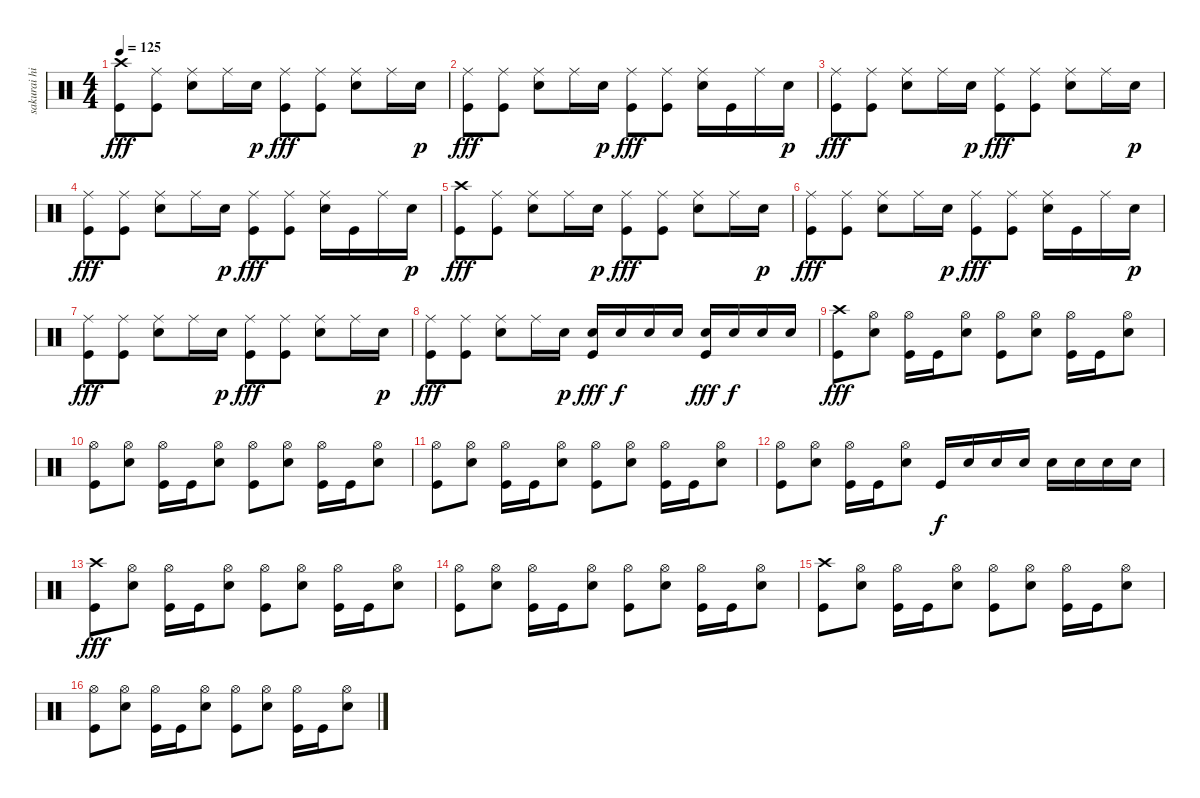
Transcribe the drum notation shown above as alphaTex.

\track ("sakurai hiroshi" "sakurai hi") {instrument percussion}
\staff {score}
\articulation defaults
\ts (4 4)
\tempo 125
\clef neutral
\ks c
("Kick (hit)" "Crash high (hit)").8{dy fff} ("Kick (hit)" "Ride (middle)").8 ("Ride (middle)" "Snare (hit) 2").8 "Ride (middle)".16 "Snare (hit) 2".16{dy p} ("Kick (hit)" "Ride (middle)").8{dy fff} ("Ride (middle)" "Kick (hit)").8 ("Ride (middle)" "Snare (hit) 2").8 "Ride (middle)".16 "Snare (hit) 2".16{dy p} |
("Kick (hit)" "Ride (middle)").8{dy fff} ("Kick (hit)" "Ride (middle)").8 ("Ride (middle)" "Snare (hit) 2").8 "Ride (middle)".16 "Snare (hit) 2".16{dy p} ("Kick (hit)" "Ride (middle)").8{dy fff} ("Ride (middle)" "Kick (hit)").8 ("Ride (middle)" "Snare (hit) 2").16 "Kick (hit)".16 "Ride (middle)".16 "Snare (hit) 2".16{dy p} |
("Kick (hit)" "Ride (middle)").8{dy fff} ("Kick (hit)" "Ride (middle)").8 ("Ride (middle)" "Snare (hit) 2").8 "Ride (middle)".16 "Snare (hit) 2".16{dy p} ("Kick (hit)" "Ride (middle)").8{dy fff} ("Ride (middle)" "Kick (hit)").8 ("Ride (middle)" "Snare (hit) 2").8 "Ride (middle)".16 "Snare (hit) 2".16{dy p} |
("Kick (hit)" "Ride (middle)").8{dy fff} ("Kick (hit)" "Ride (middle)").8 ("Ride (middle)" "Snare (hit) 2").8 "Ride (middle)".16 "Snare (hit) 2".16{dy p} ("Kick (hit)" "Ride (middle)").8{dy fff} ("Ride (middle)" "Kick (hit)").8 ("Ride (middle)" "Snare (hit) 2").16 "Kick (hit)".16 "Ride (middle)".16 "Snare (hit) 2".16{dy p} |
("Kick (hit)" "Crash high (hit)").8{dy fff} ("Kick (hit)" "Ride (middle)").8 ("Ride (middle)" "Snare (hit) 2").8 "Ride (middle)".16 "Snare (hit) 2".16{dy p} ("Kick (hit)" "Ride (middle)").8{dy fff} ("Ride (middle)" "Kick (hit)").8 ("Ride (middle)" "Snare (hit) 2").8 "Ride (middle)".16 "Snare (hit) 2".16{dy p} |
("Kick (hit)" "Ride (middle)").8{dy fff} ("Kick (hit)" "Ride (middle)").8 ("Ride (middle)" "Snare (hit) 2").8 "Ride (middle)".16 "Snare (hit) 2".16{dy p} ("Kick (hit)" "Ride (middle)").8{dy fff} ("Ride (middle)" "Kick (hit)").8 ("Ride (middle)" "Snare (hit) 2").16 "Kick (hit)".16 "Ride (middle)".16 "Snare (hit) 2".16{dy p} |
("Kick (hit)" "Ride (middle)").8{dy fff} ("Kick (hit)" "Ride (middle)").8 ("Ride (middle)" "Snare (hit) 2").8 "Ride (middle)".16 "Snare (hit) 2".16{dy p} ("Kick (hit)" "Ride (middle)").8{dy fff} ("Ride (middle)" "Kick (hit)").8 ("Ride (middle)" "Snare (hit) 2").8 "Ride (middle)".16 "Snare (hit) 2".16{dy p} |
("Kick (hit)" "Ride (middle)").8{dy fff} ("Kick (hit)" "Ride (middle)").8 ("Ride (middle)" "Snare (hit) 2").8 "Ride (middle)".16 "Snare (hit) 2".16{dy p} ("Snare (hit) 2" "Kick (hit)").16{dy fff} "Snare (hit) 2".16{dy f} "Snare (hit) 2".16 "Snare (hit) 2".16 ("Snare (hit) 2" "Kick (hit)").16{dy fff} "Snare (hit) 2".16{dy f} "Snare (hit) 2".16 "Snare (hit) 2".16 |
("Kick (hit)" "Crash high (hit)").8{dy fff} ("Hi-Hat (open)" "Snare (hit) 2").8 ("Hi-Hat (open)" "Kick (hit)").16 "Kick (hit)".16 ("Hi-Hat (open)" "Snare (hit) 2").8 ("Hi-Hat (open)" "Kick (hit)").8 ("Hi-Hat (open)" "Snare (hit) 2").8 ("Hi-Hat (open)" "Kick (hit)").16 "Kick (hit)".16 ("Hi-Hat (open)" "Snare (hit) 2").8 |
("Kick (hit)" "Hi-Hat (open)").8 ("Hi-Hat (open)" "Snare (hit) 2").8 ("Hi-Hat (open)" "Kick (hit)").16 "Kick (hit)".16 ("Hi-Hat (open)" "Snare (hit) 2").8 ("Hi-Hat (open)" "Kick (hit)").8 ("Hi-Hat (open)" "Snare (hit) 2").8 ("Hi-Hat (open)" "Kick (hit)").16 "Kick (hit)".16 ("Hi-Hat (open)" "Snare (hit) 2").8 |
("Kick (hit)" "Hi-Hat (open)").8 ("Hi-Hat (open)" "Snare (hit) 2").8 ("Hi-Hat (open)" "Kick (hit)").16 "Kick (hit)".16 ("Hi-Hat (open)" "Snare (hit) 2").8 ("Hi-Hat (open)" "Kick (hit)").8 ("Hi-Hat (open)" "Snare (hit) 2").8 ("Hi-Hat (open)" "Kick (hit)").16 "Kick (hit)".16 ("Hi-Hat (open)" "Snare (hit) 2").8 |
("Kick (hit)" "Hi-Hat (open)").8 ("Hi-Hat (open)" "Snare (hit) 2").8 ("Hi-Hat (open)" "Kick (hit)").16 "Kick (hit)".16 ("Hi-Hat (open)" "Snare (hit) 2").8 "Kick (hit)".16{dy f} "Snare (hit) 2".16 "Snare (hit) 2".16 "Snare (hit) 2".16 "Snare (hit) 2".16 "Snare (hit) 2".16 "Snare (hit) 2".16 "Snare (hit) 2".16 |
("Kick (hit)" "Crash high (hit)").8{dy fff} ("Hi-Hat (open)" "Snare (hit) 2").8 ("Hi-Hat (open)" "Kick (hit)").16 "Kick (hit)".16 ("Hi-Hat (open)" "Snare (hit) 2").8 ("Hi-Hat (open)" "Kick (hit)").8 ("Hi-Hat (open)" "Snare (hit) 2").8 ("Hi-Hat (open)" "Kick (hit)").16 "Kick (hit)".16 ("Hi-Hat (open)" "Snare (hit) 2").8 |
("Kick (hit)" "Hi-Hat (open)").8 ("Hi-Hat (open)" "Snare (hit) 2").8 ("Hi-Hat (open)" "Kick (hit)").16 "Kick (hit)".16 ("Hi-Hat (open)" "Snare (hit) 2").8 ("Hi-Hat (open)" "Kick (hit)").8 ("Hi-Hat (open)" "Snare (hit) 2").8 ("Hi-Hat (open)" "Kick (hit)").16 "Kick (hit)".16 ("Hi-Hat (open)" "Snare (hit) 2").8 |
("Kick (hit)" "Crash high (hit)").8 ("Hi-Hat (open)" "Snare (hit) 2").8 ("Hi-Hat (open)" "Kick (hit)").16 "Kick (hit)".16 ("Hi-Hat (open)" "Snare (hit) 2").8 ("Hi-Hat (open)" "Kick (hit)").8 ("Hi-Hat (open)" "Snare (hit) 2").8 ("Hi-Hat (open)" "Kick (hit)").16 "Kick (hit)".16 ("Hi-Hat (open)" "Snare (hit) 2").8 |
("Kick (hit)" "Hi-Hat (open)").8 ("Hi-Hat (open)" "Snare (hit) 2").8 ("Hi-Hat (open)" "Kick (hit)").16 "Kick (hit)".16 ("Hi-Hat (open)" "Snare (hit) 2").8 ("Hi-Hat (open)" "Kick (hit)").8 ("Hi-Hat (open)" "Snare (hit) 2").8 ("Hi-Hat (open)" "Kick (hit)").16 "Kick (hit)".16 ("Hi-Hat (open)" "Snare (hit) 2").8
